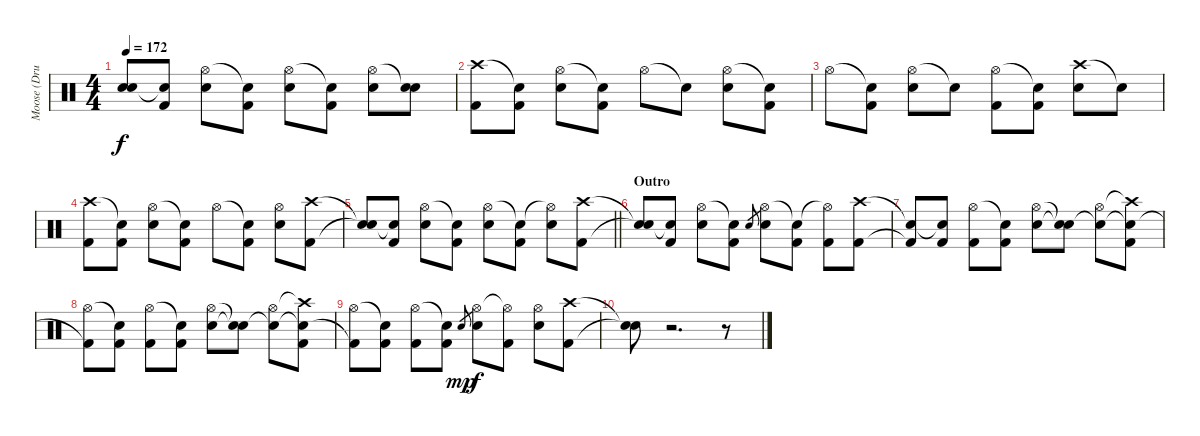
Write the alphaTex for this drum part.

\track ("Moose (Drums)" "Moose (Dru") {instrument percussion}
\staff {score}
\articulation defaults
\ts (4 4)
\tempo 172
\clef neutral
\ks c
("Snare (hit)"{t} "Snare (hit)"{t}).8{dy f} ("Snare (hit)"{t} "Kick (hit) 2").8 ("Hi-Hat (open)" "Electric Snare (hit)").8 ("Snare (hit)"{t} "Kick (hit) 2").8 ("Hi-Hat (open)" "Electric Snare (hit)").8 ("Snare (hit)"{t} "Kick (hit) 2").8 ("Hi-Hat (open)" "Electric Snare (hit)").8 ("Snare (hit)"{t} "Electric Snare (hit)").8 |
("Crash high (hit)" "Kick (hit) 2").8 ("Snare (hit)"{t} "Kick (hit) 2").8 ("Hi-Hat (open)" "Electric Snare (hit)").8 ("Snare (hit)"{t} "Kick (hit) 2").8 "Hi-Hat (open)".8 "Snare (hit)"{t}.8 ("Hi-Hat (open)" "Electric Snare (hit)").8 ("Snare (hit)"{t} "Kick (hit) 2").8 |
"Hi-Hat (open)".8 ("Snare (hit)"{t} "Kick (hit) 2").8 ("Hi-Hat (open)" "Electric Snare (hit)").8 "Snare (hit)"{t}.8 ("Hi-Hat (open)" "Kick (hit) 2").8 ("Snare (hit)"{t} "Kick (hit) 2").8 ("Crash high (hit)" "Electric Snare (hit)").8 "Snare (hit)"{t}.8 |
("Crash high (hit)" "Kick (hit) 2").8 ("Snare (hit)"{t} "Kick (hit) 2").8 ("Hi-Hat (open)" "Electric Snare (hit)").8 ("Snare (hit)"{t} "Kick (hit) 2").8 "Hi-Hat (open)".8 ("Snare (hit)"{t} "Kick (hit) 2").8 ("Hi-Hat (open)" "Electric Snare (hit)").8 ("Crash high (hit)" "Kick (hit) 2").8 |
\barLineRight lightlight
("Snare (hit)"{t} "Snare (hit)"{t}).8 ("Snare (hit)"{t} "Kick (hit) 2").8 ("Hi-Hat (open)" "Electric Snare (hit)").8 ("Snare (hit)"{t} "Kick (hit) 2").8 ("Hi-Hat (open)" "Electric Snare (hit)").8 ("Snare (hit)"{t} "Kick (hit) 2").8 ("Hi-Hat (open)"{t} "Electric Snare (hit)").8 ("Crash high (hit)" "Kick (hit) 2").8 |
\section ("" "Outro")
("Snare (hit)"{t} "Snare (hit)"{t}).8 ("Snare (hit)"{t} "Kick (hit) 2").8 ("Hi-Hat (open)" "Electric Snare (hit)").8 ("Snare (hit)"{t} "Kick (hit) 2").8 "Electric Snare (hit)".8{gr} ("Hi-Hat (open)" "Electric Snare (hit)").8 ("Snare (hit)"{t} "Kick (hit) 2").8 ("Hi-Hat (open)"{t} "Kick (hit) 2").8 ("Crash high (hit)" "Kick (hit) 2").8 |
("Snare (hit)"{t} "Kick (hit) 2"{t}).8 ("Snare (hit)"{t} "Kick (hit) 2").8 ("Hi-Hat (open)" "Kick (hit) 2").8 ("Snare (hit)"{t} "Kick (hit) 2").8 ("Hi-Hat (open)" "Electric Snare (hit)").8 ("Snare (hit)"{t} "Snare (hit)"{t}).8 ("Hi-Hat (open)" "Snare (hit)"{t}).8 ("Crash high (hit)"{t} "Snare (hit)"{t} "Kick (hit) 2").8 |
("Hi-Hat (open)" "Kick (hit) 2"{t}).8 ("Snare (hit)"{t} "Kick (hit) 2").8 ("Hi-Hat (open)" "Kick (hit) 2").8 ("Snare (hit)"{t} "Kick (hit) 2").8 ("Hi-Hat (open)" "Electric Snare (hit)").8 ("Snare (hit)"{t} "Snare (hit)"{t}).8 ("Hi-Hat (open)" "Snare (hit)"{t}).8 ("Crash high (hit)"{t} "Snare (hit)"{t} "Kick (hit) 2").8 |
("Hi-Hat (open)" "Kick (hit) 2"{t}).8 ("Snare (hit)"{t} "Kick (hit) 2").8 ("Hi-Hat (open)" "Kick (hit) 2").8 ("Snare (hit)"{t} "Kick (hit) 2").8 "Electric Snare (hit)".8{gr dy mp} ("Hi-Hat (open)" "Electric Snare (hit)").8{dy f} ("Hi-Hat (open)"{t} "Kick (hit) 2").8 ("Hi-Hat (open)" "Electric Snare (hit)").8 ("Crash high (hit)" "Kick (hit) 2").8 |
("Snare (hit)"{t} "Snare (hit)"{t}).8 r.2{d} r.8
